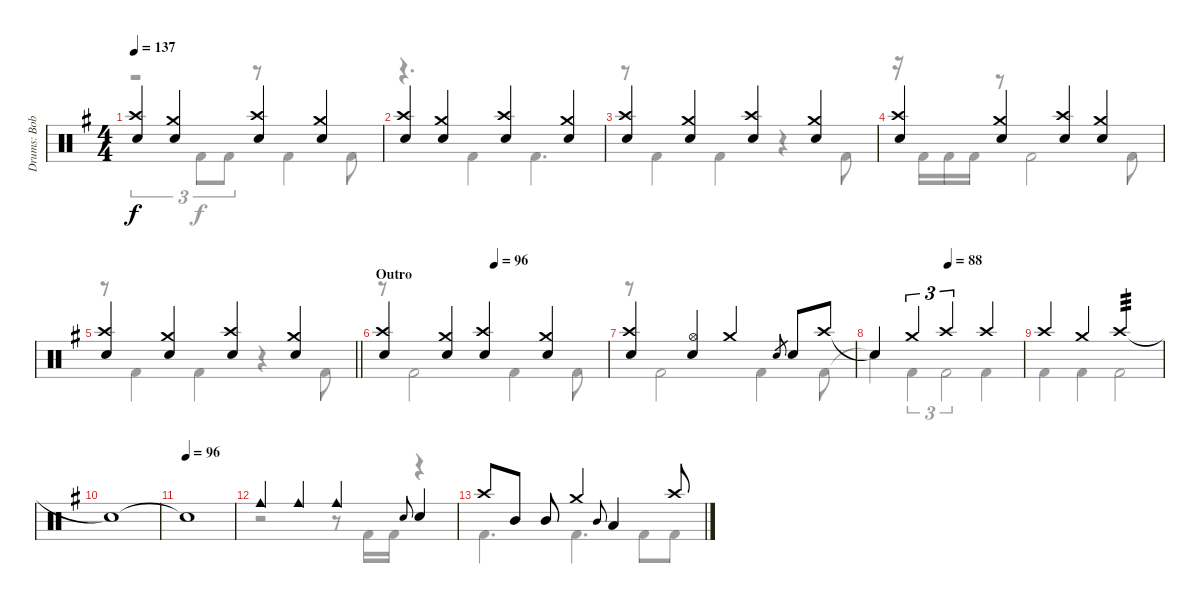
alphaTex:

\track ("Drums: Bobby" "Drums: Bob") {instrument percussion}
\staff {score}
\articulation defaults
\voice
\ts (4 4)
\tempo 137
\clef neutral
\ks g
("Crash high (hit)" "Snare (hit) 2").4{dy f} ("Crash medium (hit)" "Snare (hit) 2").4 ("Crash high (hit)" "Snare (hit) 2").4 ("Crash medium (hit)" "Snare (hit) 2").4 |
("Crash high (hit)" "Snare (hit) 2").4 ("Crash medium (hit)" "Snare (hit) 2").4 ("Crash high (hit)" "Snare (hit) 2").4 ("Crash medium (hit)" "Snare (hit) 2").4 |
("Crash high (hit)" "Snare (hit) 2").4 ("Crash medium (hit)" "Snare (hit) 2").4 ("Crash high (hit)" "Snare (hit) 2").4 ("Crash medium (hit)" "Snare (hit) 2").4 |
("Crash high (hit)" "Snare (hit) 2").4 ("Crash medium (hit)" "Snare (hit) 2").4 ("Crash high (hit)" "Snare (hit) 2").4 ("Crash medium (hit)" "Snare (hit) 2").4 |
\barLineRight lightlight
("Crash high (hit)" "Snare (hit) 2").4 ("Crash medium (hit)" "Snare (hit) 2").4 ("Crash high (hit)" "Snare (hit) 2").4 ("Crash medium (hit)" "Snare (hit) 2").4 |
\section ("" "Outro")
\tempo (96 0.5)
("Crash high (hit)" "Snare (hit) 2").4 ("Crash medium (hit)" "Snare (hit) 2").4 ("Crash high (hit)" "Snare (hit) 2").4 ("Crash medium (hit)" "Snare (hit) 2").4 |
("Crash high (hit)" "Snare (hit) 2").4 ("Hi-Hat (open)" "Snare (hit) 2").4 "Crash medium (hit)".4 "Electric Snare (hit)".8{gr} "Snare (hit) 2".8 "Crash high (hit)".8 |
\tempo (88 0.5)
"Snare (hit)"{t}.4 "Crash medium (hit)".4{tu (3 2)} "Crash high (hit)".2{tu (3 2)} "Crash high (hit)".4 |
"Crash high (hit)".4 "Crash medium (hit)".4 "Crash high (hit)".2{tp 3} |
"Snare (hit)"{t}.1 |
\tempo (96)
"Snare (hit)"{t}.1 |
"Cowbell medium (hit)".4 "Cowbell medium (hit)".4 "Cowbell medium (hit)".4 "Electric Snare (hit)".8{gr onbeat} "Snare (hit) 2".4 |
"Crash high (hit)".8 "Mid Tom (hit)".8 "Mid Tom (hit)".8 "Crash medium (hit)".4 "Mid Tom (hit)".8{gr onbeat} "Low Tom (hit)".4 "Crash high (hit)".8
\voice
\clef neutral
\ottava regular
\simile none
\ks g
r.2{tu (3 2) dy f} "Kick (hit) 2".8{tu (3 2)} "Kick (hit) 2".8{tu (3 2)} r.8 "Kick (hit) 2".4 "Kick (hit) 2".8 |
r.4{d} "Kick (hit) 2".4 "Kick (hit) 2".4{d} |
r.8 "Kick (hit) 2".4 "Kick (hit) 2".4 r.4 "Kick (hit) 2".8 |
r.16 "Kick (hit) 2".16 "Kick (hit) 2".16 "Kick (hit) 2".16 r.8 "Kick (hit) 2".2 "Kick (hit) 2".8 |
\barLineRight lightlight
r.8 "Kick (hit) 2".4 "Kick (hit) 2".4 r.4 "Kick (hit) 2".8 |
r.8 "Kick (hit) 2".2 "Kick (hit) 2".4 "Kick (hit) 2".8 |
r.8 "Kick (hit) 2".2 "Kick (hit) 2".4 "Kick (hit) 2".8 |
"Snare (hit)"{t}.4 "Kick (hit) 2".4{tu (3 2)} "Kick (hit) 2".2{tu (3 2)} "Kick (hit) 2".4 |
"Kick (hit) 2".4 "Kick (hit) 2".4 "Kick (hit) 2".2 |
|
|
r.2 r.8 "Kick (hit) 2".16 "Kick (hit) 2".16 r.4 |
"Kick (hit) 2".4{d} "Kick (hit) 2".4{d} "Kick (hit) 2".8 "Kick (hit) 2".8
